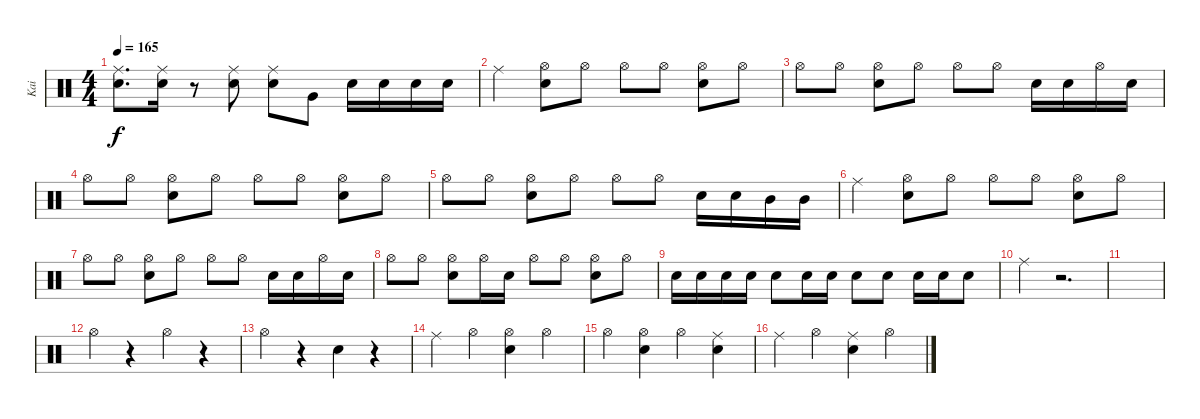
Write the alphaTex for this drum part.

\track ("Kai" "Kai") {instrument percussion}
\staff {score}
\articulation defaults
\ts (4 4)
\tempo 165
\clef neutral
\ks c
("Ride (middle)" "Snare (hit) 2").8{d dy f} ("Ride (middle)" "Snare (hit) 2").16 r.8 ("Ride (middle)" "Snare (hit) 2").8 ("Ride (middle)" "Snare (hit) 2").8 "Very Low Tom (hit)".8 "Snare (hit) 2".16 "Snare (hit) 2".16 "Snare (hit) 2".16 "Snare (hit) 2".16 |
"Ride (middle)".4 ("Hi-Hat (open)" "Snare (hit) 2").8 "Hi-Hat (open)".8 "Hi-Hat (open)".8 "Hi-Hat (open)".8 ("Hi-Hat (open)" "Snare (hit) 2").8 "Hi-Hat (open)".8 |
"Hi-Hat (open)".8 "Hi-Hat (open)".8 ("Hi-Hat (open)" "Snare (hit) 2").8 "Hi-Hat (open)".8 "Hi-Hat (open)".8 "Hi-Hat (open)".8 "Snare (hit) 2".16 "Snare (hit) 2".16 "Hi-Hat (open)".16 "Snare (hit) 2".16 |
"Hi-Hat (open)".8 "Hi-Hat (open)".8 ("Hi-Hat (open)" "Snare (hit) 2").8 "Hi-Hat (open)".8 "Hi-Hat (open)".8 "Hi-Hat (open)".8 ("Hi-Hat (open)" "Snare (hit) 2").8 "Hi-Hat (open)".8 |
"Hi-Hat (open)".8 "Hi-Hat (open)".8 ("Hi-Hat (open)" "Snare (hit) 2").8 "Hi-Hat (open)".8 "Hi-Hat (open)".8 "Hi-Hat (open)".8 "Snare (hit) 2".16 "Snare (hit) 2".16 "Mid Tom (hit)".16 "Mid Tom (hit)".16 |
"Ride (middle)".4 ("Hi-Hat (open)" "Snare (hit) 2").8 "Hi-Hat (open)".8 "Hi-Hat (open)".8 "Hi-Hat (open)".8 ("Hi-Hat (open)" "Snare (hit) 2").8 "Hi-Hat (open)".8 |
"Hi-Hat (open)".8 "Hi-Hat (open)".8 ("Hi-Hat (open)" "Snare (hit) 2").8 "Hi-Hat (open)".8 "Hi-Hat (open)".8 "Hi-Hat (open)".8 "Snare (hit) 2".16 "Snare (hit) 2".16 "Hi-Hat (open)".16 "Snare (hit) 2".16 |
"Hi-Hat (open)".8 "Hi-Hat (open)".8 ("Hi-Hat (open)" "Snare (hit) 2").8 "Hi-Hat (open)".16 "Snare (hit) 2".16 "Hi-Hat (open)".8 "Hi-Hat (open)".8 ("Hi-Hat (open)" "Snare (hit) 2").8 "Hi-Hat (open)".8 |
"Snare (hit) 2".16 "Snare (hit) 2".16 "Snare (hit) 2".16 "Snare (hit) 2".16 "Snare (hit) 2".8 "Snare (hit) 2".16 "Snare (hit) 2".16 "Snare (hit) 2".8 "Snare (hit) 2".8 "Snare (hit) 2".16 "Snare (hit) 2".16 "Snare (hit) 2".8 |
"Ride (middle)".4 r.2{d} |
|
"Hi-Hat (open)".4 r.4 "Hi-Hat (open)".4 r.4 |
"Hi-Hat (open)".4 r.4 "Snare (hit) 2".4 r.4 |
"Ride (middle)".4 "Hi-Hat (open)".4 ("Hi-Hat (open)" "Snare (hit) 2").4 "Hi-Hat (open)".4 |
"Hi-Hat (open)".4 ("Hi-Hat (open)" "Snare (hit) 2").4 "Hi-Hat (open)".4 ("Ride (middle)" "Snare (hit) 2").4 |
"Ride (middle)".4 "Hi-Hat (open)".4 ("Ride (middle)" "Snare (hit) 2").4 "Hi-Hat (open)".4
